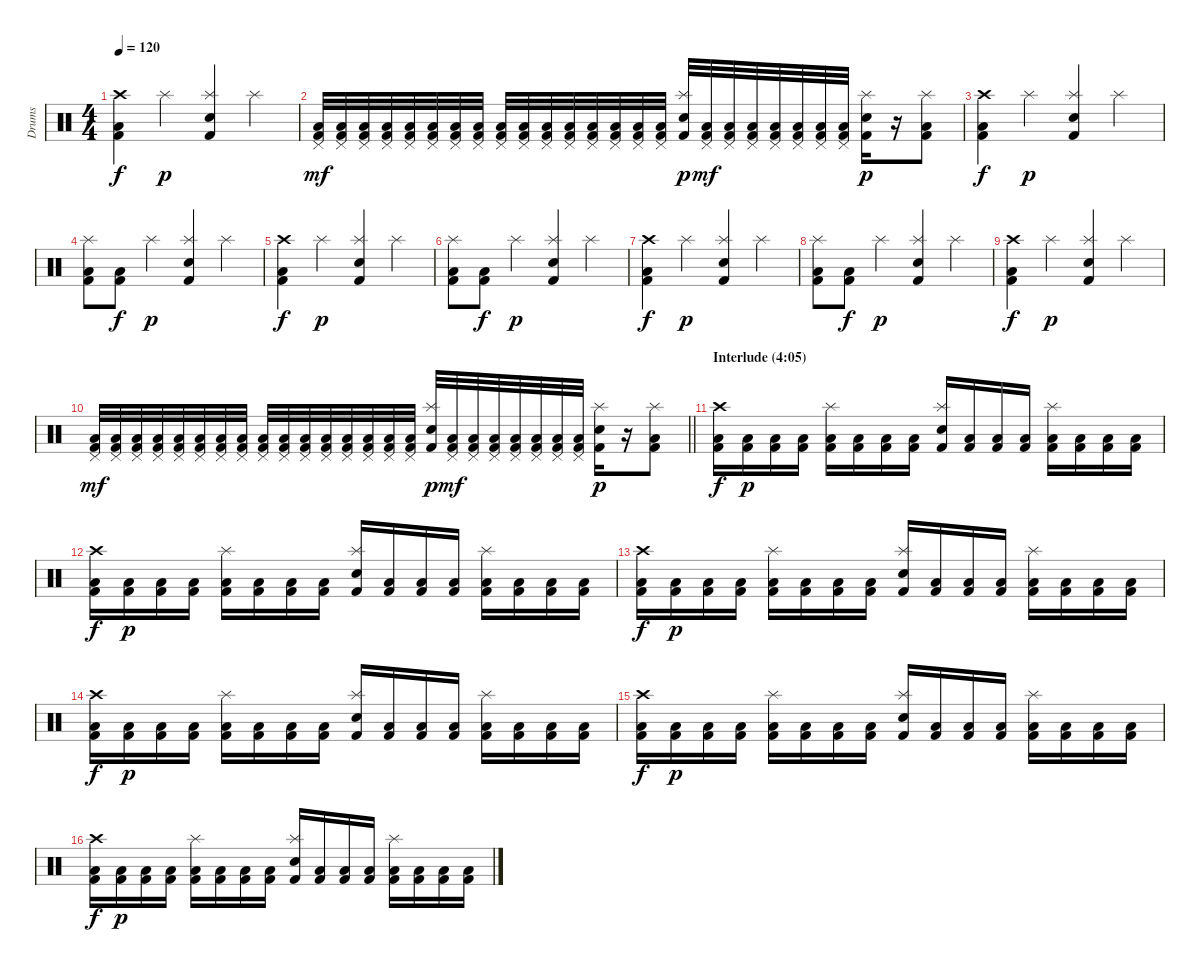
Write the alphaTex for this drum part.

\track ("Drums" "Drums") {instrument percussion}
\staff {score}
\articulation defaults
\ts (4 4)
\tempo 120
\clef neutral
\ks c
("Crash high (hit)" "Low Floor Tom (hit)" "Kick (hit) 2").4{dy f} "Splash (hit)".4{dy p} ("Splash (hit)" "Snare (hit) 2" "Kick (hit) 2").4 "Splash (hit)".4 |
("Pedal Hi-Hat (hit)" "Low Floor Tom (hit)" "Kick (hit) 2").32{dy mf} ("Pedal Hi-Hat (hit)" "Low Floor Tom (hit)" "Kick (hit) 2").32 ("Pedal Hi-Hat (hit)" "Low Floor Tom (hit)" "Kick (hit) 2").32 ("Pedal Hi-Hat (hit)" "Low Floor Tom (hit)" "Kick (hit) 2").32 ("Pedal Hi-Hat (hit)" "Low Floor Tom (hit)" "Kick (hit) 2").32 ("Pedal Hi-Hat (hit)" "Low Floor Tom (hit)" "Kick (hit) 2").32 ("Pedal Hi-Hat (hit)" "Low Floor Tom (hit)" "Kick (hit) 2").32 ("Pedal Hi-Hat (hit)" "Low Floor Tom (hit)" "Kick (hit) 2").32 ("Pedal Hi-Hat (hit)" "Low Floor Tom (hit)" "Kick (hit) 2").32 ("Pedal Hi-Hat (hit)" "Low Floor Tom (hit)" "Kick (hit) 2").32 ("Pedal Hi-Hat (hit)" "Low Floor Tom (hit)" "Kick (hit) 2").32 ("Pedal Hi-Hat (hit)" "Low Floor Tom (hit)" "Kick (hit) 2").32 ("Pedal Hi-Hat (hit)" "Low Floor Tom (hit)" "Kick (hit) 2").32 ("Pedal Hi-Hat (hit)" "Low Floor Tom (hit)" "Kick (hit) 2").32 ("Pedal Hi-Hat (hit)" "Low Floor Tom (hit)" "Kick (hit) 2").32 ("Pedal Hi-Hat (hit)" "Low Floor Tom (hit)" "Kick (hit) 2").32 ("Splash (hit)" "Snare (hit) 2" "Kick (hit) 2").32{dy p} ("Pedal Hi-Hat (hit)" "Low Floor Tom (hit)" "Kick (hit) 2").32{dy mf} ("Pedal Hi-Hat (hit)" "Low Floor Tom (hit)" "Kick (hit) 2").32 ("Pedal Hi-Hat (hit)" "Low Floor Tom (hit)" "Kick (hit) 2").32 ("Pedal Hi-Hat (hit)" "Low Floor Tom (hit)" "Kick (hit) 2").32 ("Pedal Hi-Hat (hit)" "Low Floor Tom (hit)" "Kick (hit) 2").32 ("Pedal Hi-Hat (hit)" "Low Floor Tom (hit)" "Kick (hit) 2").32 ("Pedal Hi-Hat (hit)" "Low Floor Tom (hit)" "Kick (hit) 2").32 ("Splash (hit)" "Snare (hit) 2" "Kick (hit) 2").16{dy p} r.16 ("Splash (hit)" "Low Floor Tom (hit)" "Kick (hit) 2").8 |
("Crash high (hit)" "Low Floor Tom (hit)" "Kick (hit) 2").4{dy f} "Splash (hit)".4{dy p} ("Splash (hit)" "Snare (hit) 2" "Kick (hit) 2").4 "Splash (hit)".4 |
("Splash (hit)" "Low Floor Tom (hit)" "Kick (hit) 2").8 ("Low Floor Tom (hit)" "Kick (hit) 2").8{dy f} "Splash (hit)".4{dy p} ("Splash (hit)" "Snare (hit) 2" "Kick (hit) 2").4 "Splash (hit)".4 |
("Crash high (hit)" "Low Floor Tom (hit)" "Kick (hit) 2").4{dy f} "Splash (hit)".4{dy p} ("Splash (hit)" "Snare (hit) 2" "Kick (hit) 2").4 "Splash (hit)".4 |
("Splash (hit)" "Low Floor Tom (hit)" "Kick (hit) 2").8 ("Low Floor Tom (hit)" "Kick (hit) 2").8{dy f} "Splash (hit)".4{dy p} ("Splash (hit)" "Snare (hit) 2" "Kick (hit) 2").4 "Splash (hit)".4 |
("Crash high (hit)" "Low Floor Tom (hit)" "Kick (hit) 2").4{dy f} "Splash (hit)".4{dy p} ("Splash (hit)" "Snare (hit) 2" "Kick (hit) 2").4 "Splash (hit)".4 |
("Splash (hit)" "Low Floor Tom (hit)" "Kick (hit) 2").8 ("Low Floor Tom (hit)" "Kick (hit) 2").8{dy f} "Splash (hit)".4{dy p} ("Splash (hit)" "Snare (hit) 2" "Kick (hit) 2").4 "Splash (hit)".4 |
("Crash high (hit)" "Low Floor Tom (hit)" "Kick (hit) 2").4{dy f} "Splash (hit)".4{dy p} ("Splash (hit)" "Snare (hit) 2" "Kick (hit) 2").4 "Splash (hit)".4 |
\barLineRight lightlight
("Pedal Hi-Hat (hit)" "Low Floor Tom (hit)" "Kick (hit) 2").32{dy mf} ("Pedal Hi-Hat (hit)" "Low Floor Tom (hit)" "Kick (hit) 2").32 ("Pedal Hi-Hat (hit)" "Low Floor Tom (hit)" "Kick (hit) 2").32 ("Pedal Hi-Hat (hit)" "Low Floor Tom (hit)" "Kick (hit) 2").32 ("Pedal Hi-Hat (hit)" "Low Floor Tom (hit)" "Kick (hit) 2").32 ("Pedal Hi-Hat (hit)" "Low Floor Tom (hit)" "Kick (hit) 2").32 ("Pedal Hi-Hat (hit)" "Low Floor Tom (hit)" "Kick (hit) 2").32 ("Pedal Hi-Hat (hit)" "Low Floor Tom (hit)" "Kick (hit) 2").32 ("Pedal Hi-Hat (hit)" "Low Floor Tom (hit)" "Kick (hit) 2").32 ("Pedal Hi-Hat (hit)" "Low Floor Tom (hit)" "Kick (hit) 2").32 ("Pedal Hi-Hat (hit)" "Low Floor Tom (hit)" "Kick (hit) 2").32 ("Pedal Hi-Hat (hit)" "Low Floor Tom (hit)" "Kick (hit) 2").32 ("Pedal Hi-Hat (hit)" "Low Floor Tom (hit)" "Kick (hit) 2").32 ("Pedal Hi-Hat (hit)" "Low Floor Tom (hit)" "Kick (hit) 2").32 ("Pedal Hi-Hat (hit)" "Low Floor Tom (hit)" "Kick (hit) 2").32 ("Pedal Hi-Hat (hit)" "Low Floor Tom (hit)" "Kick (hit) 2").32 ("Splash (hit)" "Snare (hit) 2" "Kick (hit) 2").32{dy p} ("Pedal Hi-Hat (hit)" "Low Floor Tom (hit)" "Kick (hit) 2").32{dy mf} ("Pedal Hi-Hat (hit)" "Low Floor Tom (hit)" "Kick (hit) 2").32 ("Pedal Hi-Hat (hit)" "Low Floor Tom (hit)" "Kick (hit) 2").32 ("Pedal Hi-Hat (hit)" "Low Floor Tom (hit)" "Kick (hit) 2").32 ("Pedal Hi-Hat (hit)" "Low Floor Tom (hit)" "Kick (hit) 2").32 ("Pedal Hi-Hat (hit)" "Low Floor Tom (hit)" "Kick (hit) 2").32 ("Pedal Hi-Hat (hit)" "Low Floor Tom (hit)" "Kick (hit) 2").32 ("Splash (hit)" "Snare (hit) 2" "Kick (hit) 2").16{dy p} r.16 ("Splash (hit)" "Low Floor Tom (hit)" "Kick (hit) 2").8 |
\section ("" "Interlude (4:05)")
("Crash high (hit)" "Low Floor Tom (hit)" "Kick (hit) 2").16{dy f} ("Low Floor Tom (hit)" "Kick (hit) 2").16{dy p} ("Low Floor Tom (hit)" "Kick (hit) 2").16 ("Low Floor Tom (hit)" "Kick (hit) 2").16 ("Splash (hit)" "Low Floor Tom (hit)" "Kick (hit) 2").16 ("Low Floor Tom (hit)" "Kick (hit) 2").16 ("Low Floor Tom (hit)" "Kick (hit) 2").16 ("Low Floor Tom (hit)" "Kick (hit) 2").16 ("Splash (hit)" "Snare (hit) 2" "Kick (hit) 2").16 ("Low Floor Tom (hit)" "Kick (hit) 2").16 ("Low Floor Tom (hit)" "Kick (hit) 2").16 ("Low Floor Tom (hit)" "Kick (hit) 2").16 ("Splash (hit)" "Low Floor Tom (hit)" "Kick (hit) 2").16 ("Low Floor Tom (hit)" "Kick (hit) 2").16 ("Low Floor Tom (hit)" "Kick (hit) 2").16 ("Low Floor Tom (hit)" "Kick (hit) 2").16 |
("Crash high (hit)" "Low Floor Tom (hit)" "Kick (hit) 2").16{dy f} ("Low Floor Tom (hit)" "Kick (hit) 2").16{dy p} ("Low Floor Tom (hit)" "Kick (hit) 2").16 ("Low Floor Tom (hit)" "Kick (hit) 2").16 ("Splash (hit)" "Low Floor Tom (hit)" "Kick (hit) 2").16 ("Low Floor Tom (hit)" "Kick (hit) 2").16 ("Low Floor Tom (hit)" "Kick (hit) 2").16 ("Low Floor Tom (hit)" "Kick (hit) 2").16 ("Splash (hit)" "Snare (hit) 2" "Kick (hit) 2").16 ("Low Floor Tom (hit)" "Kick (hit) 2").16 ("Low Floor Tom (hit)" "Kick (hit) 2").16 ("Low Floor Tom (hit)" "Kick (hit) 2").16 ("Splash (hit)" "Low Floor Tom (hit)" "Kick (hit) 2").16 ("Low Floor Tom (hit)" "Kick (hit) 2").16 ("Low Floor Tom (hit)" "Kick (hit) 2").16 ("Low Floor Tom (hit)" "Kick (hit) 2").16 |
("Crash high (hit)" "Low Floor Tom (hit)" "Kick (hit) 2").16{dy f} ("Low Floor Tom (hit)" "Kick (hit) 2").16{dy p} ("Low Floor Tom (hit)" "Kick (hit) 2").16 ("Low Floor Tom (hit)" "Kick (hit) 2").16 ("Splash (hit)" "Low Floor Tom (hit)" "Kick (hit) 2").16 ("Low Floor Tom (hit)" "Kick (hit) 2").16 ("Low Floor Tom (hit)" "Kick (hit) 2").16 ("Low Floor Tom (hit)" "Kick (hit) 2").16 ("Splash (hit)" "Snare (hit) 2" "Kick (hit) 2").16 ("Low Floor Tom (hit)" "Kick (hit) 2").16 ("Low Floor Tom (hit)" "Kick (hit) 2").16 ("Low Floor Tom (hit)" "Kick (hit) 2").16 ("Splash (hit)" "Low Floor Tom (hit)" "Kick (hit) 2").16 ("Low Floor Tom (hit)" "Kick (hit) 2").16 ("Low Floor Tom (hit)" "Kick (hit) 2").16 ("Low Floor Tom (hit)" "Kick (hit) 2").16 |
("Crash high (hit)" "Low Floor Tom (hit)" "Kick (hit) 2").16{dy f} ("Low Floor Tom (hit)" "Kick (hit) 2").16{dy p} ("Low Floor Tom (hit)" "Kick (hit) 2").16 ("Low Floor Tom (hit)" "Kick (hit) 2").16 ("Splash (hit)" "Low Floor Tom (hit)" "Kick (hit) 2").16 ("Low Floor Tom (hit)" "Kick (hit) 2").16 ("Low Floor Tom (hit)" "Kick (hit) 2").16 ("Low Floor Tom (hit)" "Kick (hit) 2").16 ("Splash (hit)" "Snare (hit) 2" "Kick (hit) 2").16 ("Low Floor Tom (hit)" "Kick (hit) 2").16 ("Low Floor Tom (hit)" "Kick (hit) 2").16 ("Low Floor Tom (hit)" "Kick (hit) 2").16 ("Splash (hit)" "Low Floor Tom (hit)" "Kick (hit) 2").16 ("Low Floor Tom (hit)" "Kick (hit) 2").16 ("Low Floor Tom (hit)" "Kick (hit) 2").16 ("Low Floor Tom (hit)" "Kick (hit) 2").16 |
("Crash high (hit)" "Low Floor Tom (hit)" "Kick (hit) 2").16{dy f} ("Low Floor Tom (hit)" "Kick (hit) 2").16{dy p} ("Low Floor Tom (hit)" "Kick (hit) 2").16 ("Low Floor Tom (hit)" "Kick (hit) 2").16 ("Splash (hit)" "Low Floor Tom (hit)" "Kick (hit) 2").16 ("Low Floor Tom (hit)" "Kick (hit) 2").16 ("Low Floor Tom (hit)" "Kick (hit) 2").16 ("Low Floor Tom (hit)" "Kick (hit) 2").16 ("Splash (hit)" "Snare (hit) 2" "Kick (hit) 2").16 ("Low Floor Tom (hit)" "Kick (hit) 2").16 ("Low Floor Tom (hit)" "Kick (hit) 2").16 ("Low Floor Tom (hit)" "Kick (hit) 2").16 ("Splash (hit)" "Low Floor Tom (hit)" "Kick (hit) 2").16 ("Low Floor Tom (hit)" "Kick (hit) 2").16 ("Low Floor Tom (hit)" "Kick (hit) 2").16 ("Low Floor Tom (hit)" "Kick (hit) 2").16 |
("Crash high (hit)" "Low Floor Tom (hit)" "Kick (hit) 2").16{dy f} ("Low Floor Tom (hit)" "Kick (hit) 2").16{dy p} ("Low Floor Tom (hit)" "Kick (hit) 2").16 ("Low Floor Tom (hit)" "Kick (hit) 2").16 ("Splash (hit)" "Low Floor Tom (hit)" "Kick (hit) 2").16 ("Low Floor Tom (hit)" "Kick (hit) 2").16 ("Low Floor Tom (hit)" "Kick (hit) 2").16 ("Low Floor Tom (hit)" "Kick (hit) 2").16 ("Splash (hit)" "Snare (hit) 2" "Kick (hit) 2").16 ("Low Floor Tom (hit)" "Kick (hit) 2").16 ("Low Floor Tom (hit)" "Kick (hit) 2").16 ("Low Floor Tom (hit)" "Kick (hit) 2").16 ("Splash (hit)" "Low Floor Tom (hit)" "Kick (hit) 2").16 ("Low Floor Tom (hit)" "Kick (hit) 2").16 ("Low Floor Tom (hit)" "Kick (hit) 2").16 ("Low Floor Tom (hit)" "Kick (hit) 2").16
